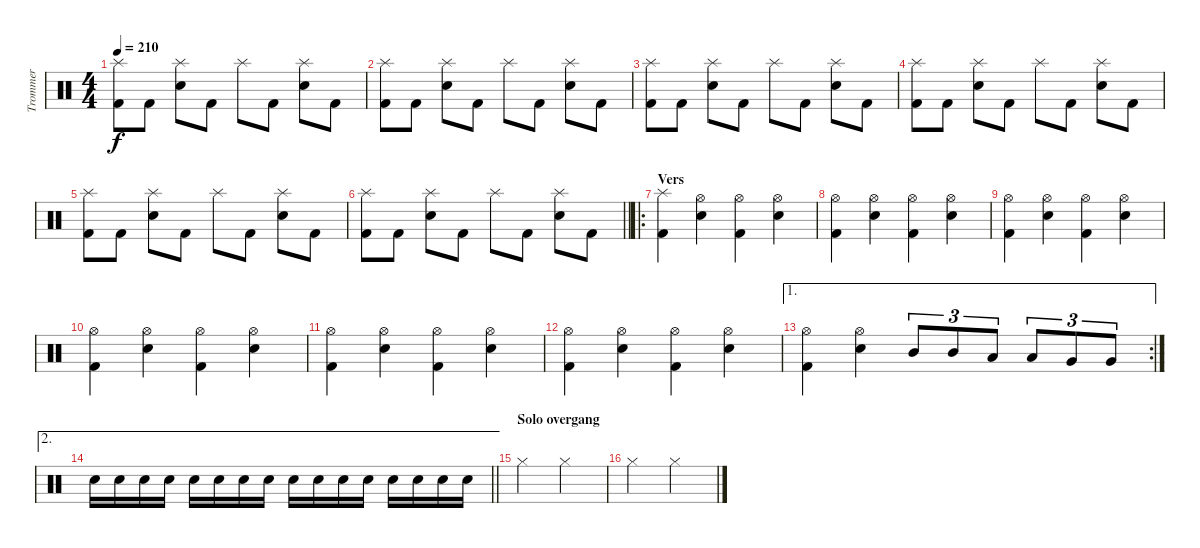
\track ("Trommer" "Trommer") {instrument percussion}
\staff {score}
\articulation defaults
\ts (4 4)
\tempo 210
\clef neutral
\ks c
("Splash (hit)" "Kick (hit) 2").8{dy f} "Kick (hit) 2".8 ("Splash (hit)" "Snare (hit) 2").8 "Kick (hit) 2".8 "Splash (hit)".8 "Kick (hit) 2".8 ("Splash (hit)" "Snare (hit) 2").8 "Kick (hit) 2".8 |
("Splash (hit)" "Kick (hit) 2").8 "Kick (hit) 2".8 ("Splash (hit)" "Snare (hit) 2").8 "Kick (hit) 2".8 "Splash (hit)".8 "Kick (hit) 2".8 ("Splash (hit)" "Snare (hit) 2").8 "Kick (hit) 2".8 |
("Splash (hit)" "Kick (hit) 2").8 "Kick (hit) 2".8 ("Splash (hit)" "Snare (hit) 2").8 "Kick (hit) 2".8 "Splash (hit)".8 "Kick (hit) 2".8 ("Splash (hit)" "Snare (hit) 2").8 "Kick (hit) 2".8 |
("Splash (hit)" "Kick (hit) 2").8 "Kick (hit) 2".8 ("Splash (hit)" "Snare (hit) 2").8 "Kick (hit) 2".8 "Splash (hit)".8 "Kick (hit) 2".8 ("Splash (hit)" "Snare (hit) 2").8 "Kick (hit) 2".8 |
("Splash (hit)" "Kick (hit) 2").8 "Kick (hit) 2".8 ("Splash (hit)" "Snare (hit) 2").8 "Kick (hit) 2".8 "Splash (hit)".8 "Kick (hit) 2".8 ("Splash (hit)" "Snare (hit) 2").8 "Kick (hit) 2".8 |
\barLineRight lightlight
("Splash (hit)" "Kick (hit) 2").8 "Kick (hit) 2".8 ("Splash (hit)" "Snare (hit) 2").8 "Kick (hit) 2".8 "Splash (hit)".8 "Kick (hit) 2".8 ("Splash (hit)" "Snare (hit) 2").8 "Kick (hit) 2".8 |
\ro
\section ("" "Vers")
("Splash (hit)" "Kick (hit) 2").4 ("Hi-Hat (open)" "Snare (hit) 2").4 ("Hi-Hat (open)" "Kick (hit) 2").4 ("Hi-Hat (open)" "Snare (hit) 2").4 |
("Hi-Hat (open)" "Kick (hit) 2").4 ("Hi-Hat (open)" "Snare (hit) 2").4 ("Hi-Hat (open)" "Kick (hit) 2").4 ("Hi-Hat (open)" "Snare (hit) 2").4 |
("Hi-Hat (open)" "Kick (hit) 2").4 ("Hi-Hat (open)" "Snare (hit) 2").4 ("Hi-Hat (open)" "Kick (hit) 2").4 ("Hi-Hat (open)" "Snare (hit) 2").4 |
("Hi-Hat (open)" "Kick (hit) 2").4 ("Hi-Hat (open)" "Snare (hit) 2").4 ("Hi-Hat (open)" "Kick (hit) 2").4 ("Hi-Hat (open)" "Snare (hit) 2").4 |
("Hi-Hat (open)" "Kick (hit) 2").4 ("Hi-Hat (open)" "Snare (hit) 2").4 ("Hi-Hat (open)" "Kick (hit) 2").4 ("Hi-Hat (open)" "Snare (hit) 2").4 |
("Hi-Hat (open)" "Kick (hit) 2").4 ("Hi-Hat (open)" "Snare (hit) 2").4 ("Hi-Hat (open)" "Kick (hit) 2").4 ("Hi-Hat (open)" "Snare (hit) 2").4 |
\ae 1
\rc 2
("Hi-Hat (open)" "Kick (hit) 2").4 ("Hi-Hat (open)" "Snare (hit) 2").4 "Mid Tom (hit)".8{tu (3 2)} "Mid Tom (hit)".8{tu (3 2)} "Low Tom (hit)".8{tu (3 2)} "Low Tom (hit)".8{tu (3 2)} "Very Low Tom (hit)".8{tu (3 2)} "Very Low Tom (hit)".8{tu (3 2)} |
\ae 2
\barLineRight lightlight "Snare (hit) 2".16 "Snare (hit) 2".16 "Snare (hit) 2".16 "Snare (hit) 2".16 "Snare (hit) 2".16 "Snare (hit) 2".16 "Snare (hit) 2".16 "Snare (hit) 2".16 "Snare (hit) 2".16 "Snare (hit) 2".16 "Snare (hit) 2".16 "Snare (hit) 2".16 "Snare (hit) 2".16 "Snare (hit) 2".16 "Snare (hit) 2".16 "Snare (hit) 2".16
|
\section ("" "Solo overgang")
"Hi-Hat (closed)".2 "Hi-Hat (closed)".2 |
"Hi-Hat (closed)".2 "Hi-Hat (closed)".2
